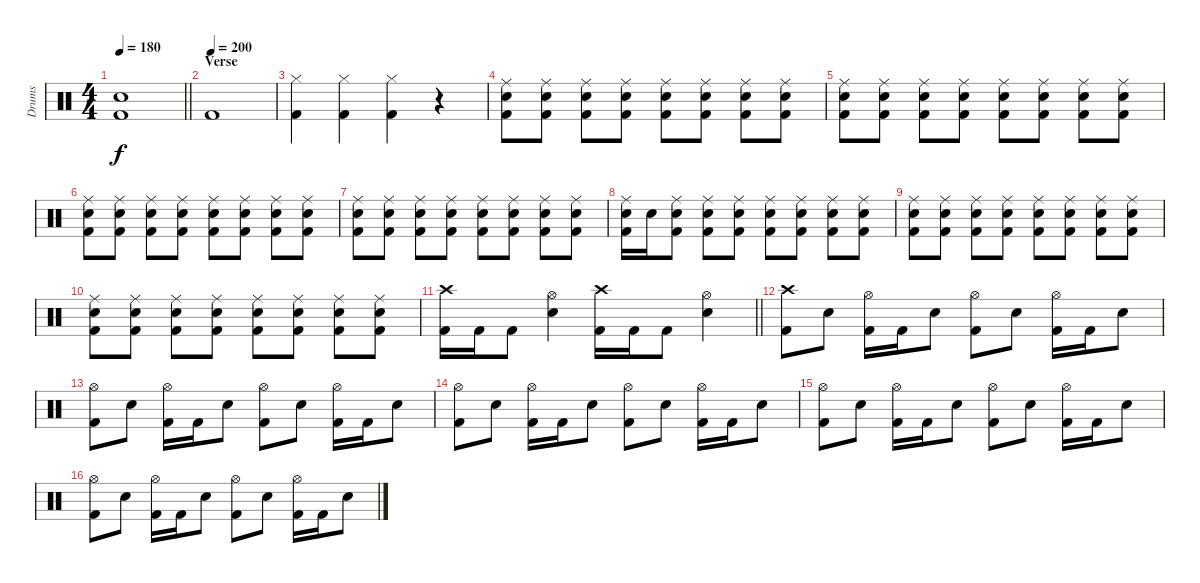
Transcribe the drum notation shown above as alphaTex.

\track ("Drums" "Drums") {instrument percussion}
\staff {score}
\articulation defaults
\ts (4 4)
\tempo 180
\clef neutral
\barLineRight lightlight
\ks c
("Electric Snare (hit)" "Kick (hit) 2").1{dy f} |
\section ("" "Verse")
\tempo (200)
"Kick (hit) 2".1 |
("Hi-Hat (closed)" "Kick (hit) 2").4 ("Hi-Hat (closed)" "Kick (hit) 2").4 ("Hi-Hat (closed)" "Kick (hit) 2").4 r.4 |
("Ride (middle)" "Electric Snare (hit)" "Kick (hit) 2").8 ("Ride (middle)" "Electric Snare (hit)" "Kick (hit) 2").8 ("Ride (middle)" "Electric Snare (hit)" "Kick (hit) 2").8 ("Ride (middle)" "Electric Snare (hit)" "Kick (hit) 2").8 ("Ride (middle)" "Electric Snare (hit)" "Kick (hit) 2").8 ("Ride (middle)" "Electric Snare (hit)" "Kick (hit) 2").8 ("Ride (middle)" "Electric Snare (hit)" "Kick (hit) 2").8 ("Ride (middle)" "Electric Snare (hit)" "Kick (hit) 2").8 |
("Ride (middle)" "Electric Snare (hit)" "Kick (hit) 2").8 ("Ride (middle)" "Electric Snare (hit)" "Kick (hit) 2").8 ("Ride (middle)" "Electric Snare (hit)" "Kick (hit) 2").8 ("Ride (middle)" "Electric Snare (hit)" "Kick (hit) 2").8 ("Ride (middle)" "Electric Snare (hit)" "Kick (hit) 2").8 ("Ride (middle)" "Electric Snare (hit)" "Kick (hit) 2").8 ("Ride (middle)" "Electric Snare (hit)" "Kick (hit) 2").8 ("Ride (middle)" "Electric Snare (hit)" "Kick (hit) 2").8 |
("Ride (middle)" "Electric Snare (hit)" "Kick (hit) 2").8 ("Ride (middle)" "Electric Snare (hit)" "Kick (hit) 2").8 ("Ride (middle)" "Electric Snare (hit)" "Kick (hit) 2").8 ("Ride (middle)" "Electric Snare (hit)" "Kick (hit) 2").8 ("Ride (middle)" "Electric Snare (hit)" "Kick (hit) 2").8 ("Ride (middle)" "Electric Snare (hit)" "Kick (hit) 2").8 ("Ride (middle)" "Electric Snare (hit)" "Kick (hit) 2").8 ("Ride (middle)" "Electric Snare (hit)" "Kick (hit) 2").8 |
("Ride (middle)" "Electric Snare (hit)" "Kick (hit) 2").8 ("Ride (middle)" "Electric Snare (hit)" "Kick (hit) 2").8 ("Ride (middle)" "Electric Snare (hit)" "Kick (hit) 2").8 ("Ride (middle)" "Electric Snare (hit)" "Kick (hit) 2").8 ("Ride (middle)" "Electric Snare (hit)" "Kick (hit) 2").8 ("Ride (middle)" "Electric Snare (hit)" "Kick (hit) 2").8 ("Ride (middle)" "Electric Snare (hit)" "Kick (hit) 2").8 ("Ride (middle)" "Electric Snare (hit)" "Kick (hit) 2").8 |
("Ride (middle)" "Electric Snare (hit)" "Kick (hit) 2").16 "Electric Snare (hit)".16 ("Ride (middle)" "Electric Snare (hit)" "Kick (hit) 2").8 ("Ride (middle)" "Electric Snare (hit)" "Kick (hit) 2").8 ("Ride (middle)" "Electric Snare (hit)" "Kick (hit) 2").8 ("Ride (middle)" "Electric Snare (hit)" "Kick (hit) 2").8 ("Ride (middle)" "Electric Snare (hit)" "Kick (hit) 2").8 ("Ride (middle)" "Electric Snare (hit)" "Kick (hit) 2").8 ("Ride (middle)" "Electric Snare (hit)" "Kick (hit) 2").8 |
("Ride (middle)" "Electric Snare (hit)" "Kick (hit) 2").8 ("Ride (middle)" "Electric Snare (hit)" "Kick (hit) 2").8 ("Ride (middle)" "Electric Snare (hit)" "Kick (hit) 2").8 ("Ride (middle)" "Electric Snare (hit)" "Kick (hit) 2").8 ("Ride (middle)" "Electric Snare (hit)" "Kick (hit) 2").8 ("Ride (middle)" "Electric Snare (hit)" "Kick (hit) 2").8 ("Ride (middle)" "Electric Snare (hit)" "Kick (hit) 2").8 ("Ride (middle)" "Electric Snare (hit)" "Kick (hit) 2").8 |
("Ride (middle)" "Electric Snare (hit)" "Kick (hit) 2").8 ("Ride (middle)" "Electric Snare (hit)" "Kick (hit) 2").8 ("Ride (middle)" "Electric Snare (hit)" "Kick (hit) 2").8 ("Ride (middle)" "Electric Snare (hit)" "Kick (hit) 2").8 ("Ride (middle)" "Electric Snare (hit)" "Kick (hit) 2").8 ("Ride (middle)" "Electric Snare (hit)" "Kick (hit) 2").8 ("Ride (middle)" "Electric Snare (hit)" "Kick (hit) 2").8 ("Ride (middle)" "Electric Snare (hit)" "Kick (hit) 2").8 |
\barLineRight lightlight
("Crash high (hit)" "Kick (hit) 2").16 "Kick (hit) 2".16 "Kick (hit) 2".8 ("Hi-Hat (open)" "Electric Snare (hit)").4 ("Crash high (hit)" "Kick (hit) 2").16 "Kick (hit) 2".16 "Kick (hit) 2".8 ("Hi-Hat (open)" "Electric Snare (hit)").4 |
\section ("" ".")
("Crash high (hit)" "Kick (hit) 2").8 "Electric Snare (hit)".8 ("Hi-Hat (open)" "Kick (hit) 2").16 "Kick (hit) 2".16 "Electric Snare (hit)".8 ("Hi-Hat (open)" "Kick (hit) 2").8 "Electric Snare (hit)".8 ("Hi-Hat (open)" "Kick (hit) 2").16 "Kick (hit) 2".16 "Electric Snare (hit)".8 |
("Hi-Hat (open)" "Kick (hit) 2").8 "Electric Snare (hit)".8 ("Hi-Hat (open)" "Kick (hit) 2").16 "Kick (hit) 2".16 "Electric Snare (hit)".8 ("Hi-Hat (open)" "Kick (hit) 2").8 "Electric Snare (hit)".8 ("Hi-Hat (open)" "Kick (hit) 2").16 "Kick (hit) 2".16 "Electric Snare (hit)".8 |
("Hi-Hat (open)" "Kick (hit) 2").8 "Electric Snare (hit)".8 ("Hi-Hat (open)" "Kick (hit) 2").16 "Kick (hit) 2".16 "Electric Snare (hit)".8 ("Hi-Hat (open)" "Kick (hit) 2").8 "Electric Snare (hit)".8 ("Hi-Hat (open)" "Kick (hit) 2").16 "Kick (hit) 2".16 "Electric Snare (hit)".8 |
("Hi-Hat (open)" "Kick (hit) 2").8 "Electric Snare (hit)".8 ("Hi-Hat (open)" "Kick (hit) 2").16 "Kick (hit) 2".16 "Electric Snare (hit)".8 ("Hi-Hat (open)" "Kick (hit) 2").8 "Electric Snare (hit)".8 ("Hi-Hat (open)" "Kick (hit) 2").16 "Kick (hit) 2".16 "Electric Snare (hit)".8 |
("Hi-Hat (open)" "Kick (hit) 2").8 "Electric Snare (hit)".8 ("Hi-Hat (open)" "Kick (hit) 2").16 "Kick (hit) 2".16 "Electric Snare (hit)".8 ("Hi-Hat (open)" "Kick (hit) 2").8 "Electric Snare (hit)".8 ("Hi-Hat (open)" "Kick (hit) 2").16 "Kick (hit) 2".16 "Electric Snare (hit)".8
